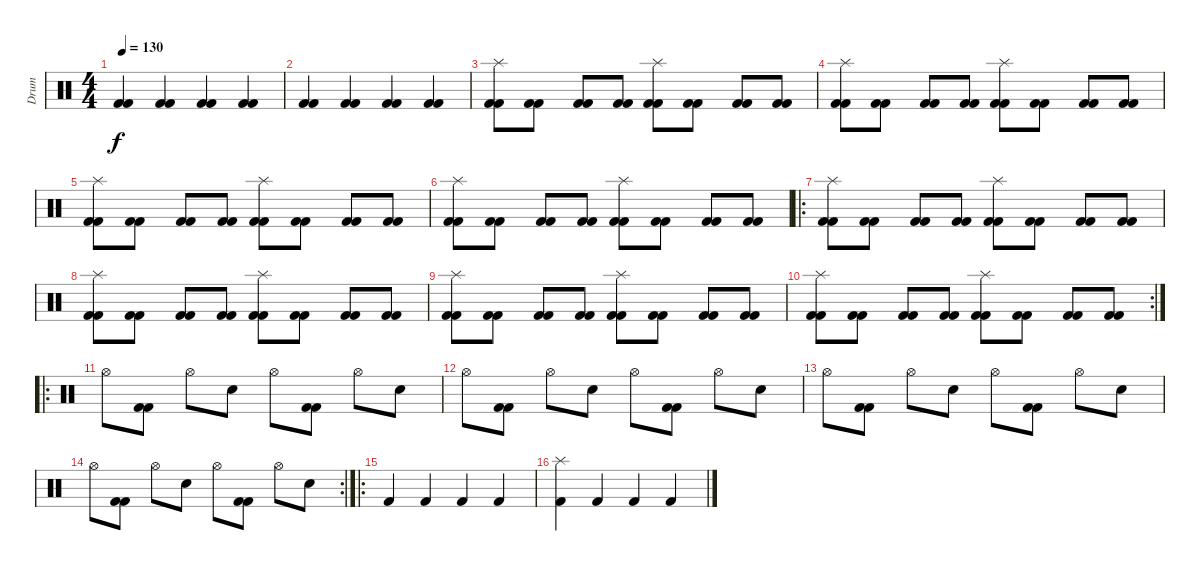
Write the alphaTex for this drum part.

\track ("Drum" "Drum") {instrument percussion}
\staff {score}
\articulation defaults
\ts (4 4)
\tempo 130
\clef neutral
\ks c
("Kick (hit) 2" "Kick (hit) 2").4{dy f} ("Kick (hit) 2" "Kick (hit) 2").4 ("Kick (hit) 2" "Kick (hit) 2").4 ("Kick (hit) 2" "Kick (hit) 2").4 |
("Kick (hit) 2" "Kick (hit) 2").4 ("Kick (hit) 2" "Kick (hit) 2").4 ("Kick (hit) 2" "Kick (hit) 2").4 ("Kick (hit) 2" "Kick (hit) 2").4 |
("Kick (hit) 2" "Kick (hit) 2" "Splash (hit)").8 ("Kick (hit) 2" "Kick (hit) 2").8 ("Kick (hit) 2" "Kick (hit) 2").8 ("Kick (hit) 2" "Kick (hit) 2").8 ("Kick (hit) 2" "Kick (hit) 2" "Splash (hit)").8 ("Kick (hit) 2" "Kick (hit) 2").8 ("Kick (hit) 2" "Kick (hit) 2").8 ("Kick (hit) 2" "Kick (hit) 2").8 |
("Kick (hit) 2" "Kick (hit) 2" "Splash (hit)").8 ("Kick (hit) 2" "Kick (hit) 2").8 ("Kick (hit) 2" "Kick (hit) 2").8 ("Kick (hit) 2" "Kick (hit) 2").8 ("Kick (hit) 2" "Kick (hit) 2" "Splash (hit)").8 ("Kick (hit) 2" "Kick (hit) 2").8 ("Kick (hit) 2" "Kick (hit) 2").8 ("Kick (hit) 2" "Kick (hit) 2").8 |
("Kick (hit) 2" "Kick (hit) 2" "Splash (hit)").8 ("Kick (hit) 2" "Kick (hit) 2").8 ("Kick (hit) 2" "Kick (hit) 2").8 ("Kick (hit) 2" "Kick (hit) 2").8 ("Kick (hit) 2" "Kick (hit) 2" "Splash (hit)").8 ("Kick (hit) 2" "Kick (hit) 2").8 ("Kick (hit) 2" "Kick (hit) 2").8 ("Kick (hit) 2" "Kick (hit) 2").8 |
("Kick (hit) 2" "Kick (hit) 2" "Splash (hit)").8 ("Kick (hit) 2" "Kick (hit) 2").8 ("Kick (hit) 2" "Kick (hit) 2").8 ("Kick (hit) 2" "Kick (hit) 2").8 ("Kick (hit) 2" "Kick (hit) 2" "Splash (hit)").8 ("Kick (hit) 2" "Kick (hit) 2").8 ("Kick (hit) 2" "Kick (hit) 2").8 ("Kick (hit) 2" "Kick (hit) 2").8 |
\ro
("Kick (hit) 2" "Kick (hit) 2" "Splash (hit)").8 ("Kick (hit) 2" "Kick (hit) 2").8 ("Kick (hit) 2" "Kick (hit) 2").8 ("Kick (hit) 2" "Kick (hit) 2").8 ("Kick (hit) 2" "Kick (hit) 2" "Splash (hit)").8 ("Kick (hit) 2" "Kick (hit) 2").8 ("Kick (hit) 2" "Kick (hit) 2").8 ("Kick (hit) 2" "Kick (hit) 2").8 |
("Kick (hit) 2" "Kick (hit) 2" "Splash (hit)").8 ("Kick (hit) 2" "Kick (hit) 2").8 ("Kick (hit) 2" "Kick (hit) 2").8 ("Kick (hit) 2" "Kick (hit) 2").8 ("Kick (hit) 2" "Kick (hit) 2" "Splash (hit)").8 ("Kick (hit) 2" "Kick (hit) 2").8 ("Kick (hit) 2" "Kick (hit) 2").8 ("Kick (hit) 2" "Kick (hit) 2").8 |
("Kick (hit) 2" "Kick (hit) 2" "Splash (hit)").8 ("Kick (hit) 2" "Kick (hit) 2").8 ("Kick (hit) 2" "Kick (hit) 2").8 ("Kick (hit) 2" "Kick (hit) 2").8 ("Kick (hit) 2" "Kick (hit) 2" "Splash (hit)").8 ("Kick (hit) 2" "Kick (hit) 2").8 ("Kick (hit) 2" "Kick (hit) 2").8 ("Kick (hit) 2" "Kick (hit) 2").8 |
\rc 2
("Kick (hit) 2" "Kick (hit) 2" "Splash (hit)").8 ("Kick (hit) 2" "Kick (hit) 2").8 ("Kick (hit) 2" "Kick (hit) 2").8 ("Kick (hit) 2" "Kick (hit) 2").8 ("Kick (hit) 2" "Kick (hit) 2" "Splash (hit)").8 ("Kick (hit) 2" "Kick (hit) 2").8 ("Kick (hit) 2" "Kick (hit) 2").8 ("Kick (hit) 2" "Kick (hit) 2").8 |
\ro "Hi-Hat (open)".8
("Kick (hit) 2" "Kick (hit) 2").8 "Hi-Hat (open)".8 "Snare (hit) 2".8 "Hi-Hat (open)".8 ("Kick (hit) 2" "Kick (hit) 2").8 "Hi-Hat (open)".8 "Snare (hit) 2".8 |
"Hi-Hat (open)".8 ("Kick (hit) 2" "Kick (hit) 2").8 "Hi-Hat (open)".8 "Snare (hit) 2".8 "Hi-Hat (open)".8 ("Kick (hit) 2" "Kick (hit) 2").8 "Hi-Hat (open)".8 "Snare (hit) 2".8 |
"Hi-Hat (open)".8 ("Kick (hit) 2" "Kick (hit) 2").8 "Hi-Hat (open)".8 "Snare (hit) 2".8 "Hi-Hat (open)".8 ("Kick (hit) 2" "Kick (hit) 2").8 "Hi-Hat (open)".8 "Snare (hit) 2".8 |
\rc 2 "Hi-Hat (open)".8
("Kick (hit) 2" "Kick (hit) 2").8 "Hi-Hat (open)".8 "Snare (hit) 2".8 "Hi-Hat (open)".8 ("Kick (hit) 2" "Kick (hit) 2").8 "Hi-Hat (open)".8 "Snare (hit) 2".8 |
\ro "Kick (hit) 2".4 "Kick (hit) 2".4 "Kick (hit) 2".4 "Kick (hit) 2".4
|
("Kick (hit) 2" "Splash (hit)").4 "Kick (hit) 2".4 "Kick (hit) 2".4 "Kick (hit) 2".4
